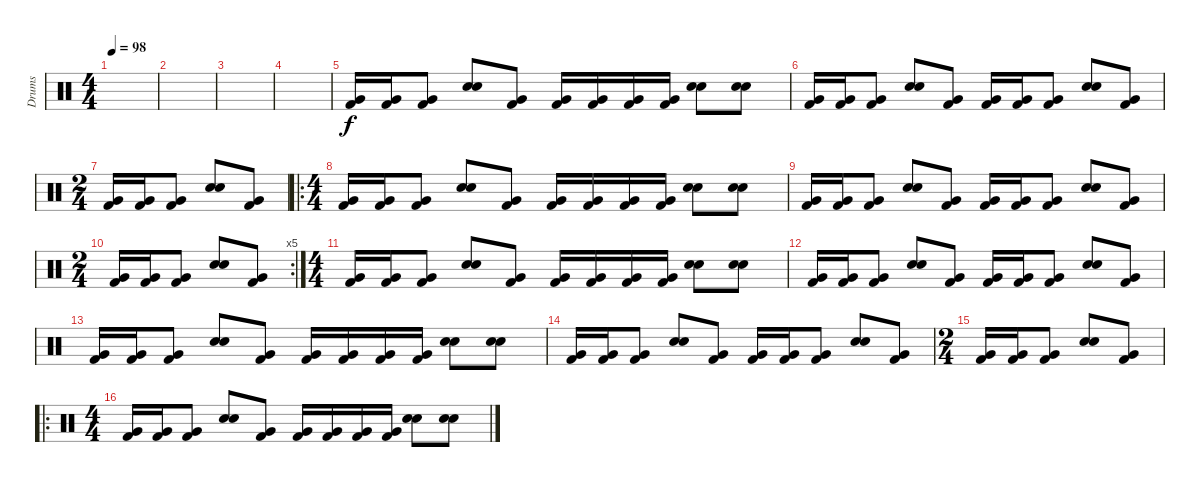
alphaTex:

\track ("Drums" "Drums") {instrument percussion}
\staff {score}
\articulation defaults
\ts (4 4)
\tempo 98
\clef neutral
\ks c
|
|
|
|
("Very Low Tom (hit)" "Kick (hit) 2").16 ("Very Low Tom (hit)" "Kick (hit) 2").16 ("Very Low Tom (hit)" "Kick (hit) 2").8 ("Electric Snare (hit)" "Snare (hit) 2").8 ("Very Low Tom (hit)" "Kick (hit) 2").8 ("Very Low Tom (hit)" "Kick (hit) 2").16 ("Very Low Tom (hit)" "Kick (hit) 2").16 ("Very Low Tom (hit)" "Kick (hit) 2").16 ("Very Low Tom (hit)" "Kick (hit) 2").16 ("Electric Snare (hit)" "Snare (hit) 2").8 ("Electric Snare (hit)" "Snare (hit) 2").8 |
("Very Low Tom (hit)" "Kick (hit) 2").16 ("Very Low Tom (hit)" "Kick (hit) 2").16 ("Very Low Tom (hit)" "Kick (hit) 2").8 ("Electric Snare (hit)" "Snare (hit) 2").8 ("Very Low Tom (hit)" "Kick (hit) 2").8 ("Very Low Tom (hit)" "Kick (hit) 2").16 ("Very Low Tom (hit)" "Kick (hit) 2").16 ("Very Low Tom (hit)" "Kick (hit) 2").8 ("Electric Snare (hit)" "Snare (hit) 2").8 ("Very Low Tom (hit)" "Kick (hit) 2").8 |
\ts (2 4)
("Very Low Tom (hit)" "Kick (hit) 2").16 ("Very Low Tom (hit)" "Kick (hit) 2").16 ("Very Low Tom (hit)" "Kick (hit) 2").8 ("Electric Snare (hit)" "Snare (hit) 2").8 ("Very Low Tom (hit)" "Kick (hit) 2").8 |
\ro
\ts (4 4)
("Very Low Tom (hit)" "Kick (hit) 2").16 ("Very Low Tom (hit)" "Kick (hit) 2").16 ("Very Low Tom (hit)" "Kick (hit) 2").8 ("Electric Snare (hit)" "Snare (hit) 2").8 ("Very Low Tom (hit)" "Kick (hit) 2").8 ("Very Low Tom (hit)" "Kick (hit) 2").16 ("Very Low Tom (hit)" "Kick (hit) 2").16 ("Very Low Tom (hit)" "Kick (hit) 2").16 ("Very Low Tom (hit)" "Kick (hit) 2").16 ("Electric Snare (hit)" "Snare (hit) 2").8 ("Electric Snare (hit)" "Snare (hit) 2").8 |
("Very Low Tom (hit)" "Kick (hit) 2").16 ("Very Low Tom (hit)" "Kick (hit) 2").16 ("Very Low Tom (hit)" "Kick (hit) 2").8 ("Electric Snare (hit)" "Snare (hit) 2").8 ("Very Low Tom (hit)" "Kick (hit) 2").8 ("Very Low Tom (hit)" "Kick (hit) 2").16 ("Very Low Tom (hit)" "Kick (hit) 2").16 ("Very Low Tom (hit)" "Kick (hit) 2").8 ("Electric Snare (hit)" "Snare (hit) 2").8 ("Very Low Tom (hit)" "Kick (hit) 2").8 |
\rc 5
\ts (2 4)
("Very Low Tom (hit)" "Kick (hit) 2").16 ("Very Low Tom (hit)" "Kick (hit) 2").16 ("Very Low Tom (hit)" "Kick (hit) 2").8 ("Electric Snare (hit)" "Snare (hit) 2").8 ("Very Low Tom (hit)" "Kick (hit) 2").8 |
\ts (4 4)
("Very Low Tom (hit)" "Kick (hit) 2").16 ("Very Low Tom (hit)" "Kick (hit) 2").16 ("Very Low Tom (hit)" "Kick (hit) 2").8 ("Electric Snare (hit)" "Snare (hit) 2").8 ("Very Low Tom (hit)" "Kick (hit) 2").8 ("Very Low Tom (hit)" "Kick (hit) 2").16 ("Very Low Tom (hit)" "Kick (hit) 2").16 ("Very Low Tom (hit)" "Kick (hit) 2").16 ("Very Low Tom (hit)" "Kick (hit) 2").16 ("Electric Snare (hit)" "Snare (hit) 2").8 ("Electric Snare (hit)" "Snare (hit) 2").8 |
("Very Low Tom (hit)" "Kick (hit) 2").16 ("Very Low Tom (hit)" "Kick (hit) 2").16 ("Very Low Tom (hit)" "Kick (hit) 2").8 ("Electric Snare (hit)" "Snare (hit) 2").8 ("Very Low Tom (hit)" "Kick (hit) 2").8 ("Very Low Tom (hit)" "Kick (hit) 2").16 ("Very Low Tom (hit)" "Kick (hit) 2").16 ("Very Low Tom (hit)" "Kick (hit) 2").8 ("Electric Snare (hit)" "Snare (hit) 2").8 ("Very Low Tom (hit)" "Kick (hit) 2").8 |
("Very Low Tom (hit)" "Kick (hit) 2").16 ("Very Low Tom (hit)" "Kick (hit) 2").16 ("Very Low Tom (hit)" "Kick (hit) 2").8 ("Electric Snare (hit)" "Snare (hit) 2").8 ("Very Low Tom (hit)" "Kick (hit) 2").8 ("Very Low Tom (hit)" "Kick (hit) 2").16 ("Very Low Tom (hit)" "Kick (hit) 2").16 ("Very Low Tom (hit)" "Kick (hit) 2").16 ("Very Low Tom (hit)" "Kick (hit) 2").16 ("Electric Snare (hit)" "Snare (hit) 2").8 ("Electric Snare (hit)" "Snare (hit) 2").8 |
("Very Low Tom (hit)" "Kick (hit) 2").16 ("Very Low Tom (hit)" "Kick (hit) 2").16 ("Very Low Tom (hit)" "Kick (hit) 2").8 ("Electric Snare (hit)" "Snare (hit) 2").8 ("Very Low Tom (hit)" "Kick (hit) 2").8 ("Very Low Tom (hit)" "Kick (hit) 2").16 ("Very Low Tom (hit)" "Kick (hit) 2").16 ("Very Low Tom (hit)" "Kick (hit) 2").8 ("Electric Snare (hit)" "Snare (hit) 2").8 ("Very Low Tom (hit)" "Kick (hit) 2").8 |
\ts (2 4)
("Very Low Tom (hit)" "Kick (hit) 2").16 ("Very Low Tom (hit)" "Kick (hit) 2").16 ("Very Low Tom (hit)" "Kick (hit) 2").8 ("Electric Snare (hit)" "Snare (hit) 2").8 ("Very Low Tom (hit)" "Kick (hit) 2").8 |
\ro
\ts (4 4)
("Very Low Tom (hit)" "Kick (hit) 2").16 ("Very Low Tom (hit)" "Kick (hit) 2").16 ("Very Low Tom (hit)" "Kick (hit) 2").8 ("Electric Snare (hit)" "Snare (hit) 2").8 ("Very Low Tom (hit)" "Kick (hit) 2").8 ("Very Low Tom (hit)" "Kick (hit) 2").16 ("Very Low Tom (hit)" "Kick (hit) 2").16 ("Very Low Tom (hit)" "Kick (hit) 2").16 ("Very Low Tom (hit)" "Kick (hit) 2").16 ("Electric Snare (hit)" "Snare (hit) 2").8 ("Electric Snare (hit)" "Snare (hit) 2").8
